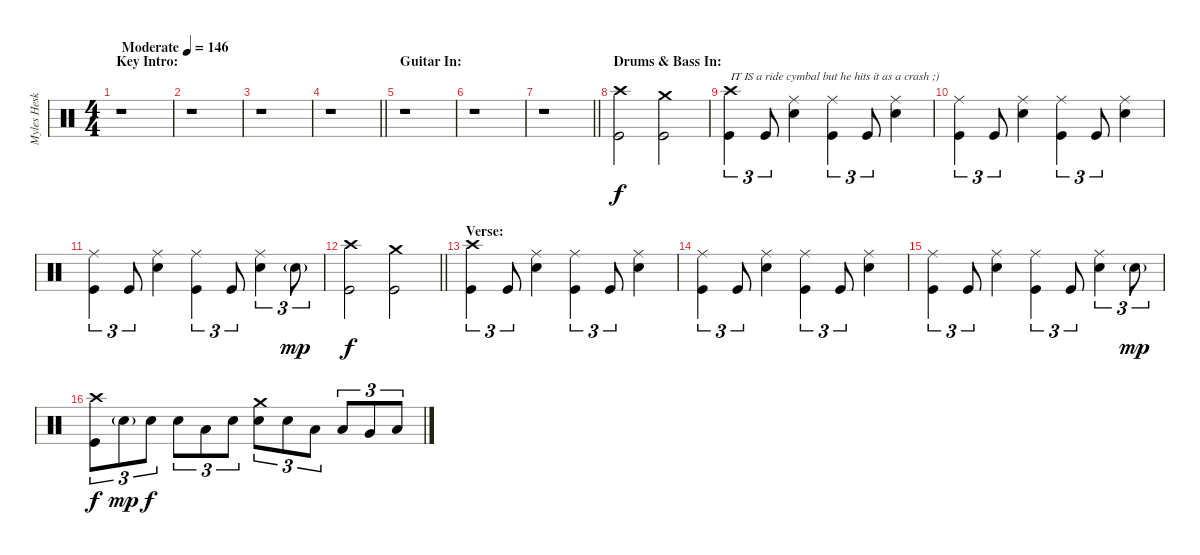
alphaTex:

\track ("Myles Heskett" "Myles Hesk") {instrument percussion}
\staff {score}
\articulation defaults
\ts (4 4)
\section ("" "Key Intro:")
\tempo (146 "Moderate")
\clef neutral
\ks c
r.1{dy f} |
r.1 |
r.1 |
\barLineRight lightlight
r.1 |
\section ("" "Guitar In:")
r.1 |
r.1 |
\barLineRight lightlight
r.1 |
\section ("" "Drums & Bass In:")
("Crash high (hit)" "Kick (hit)").2 ("Crash medium (hit)" "Kick (hit)").2 |
("Crash high (hit)" "Kick (hit)").4{tu (3 2) txt "IT IS a ride cymbal but he hits it as a crash ;)"} "Kick (hit)".8{tu (3 2)} ("Ride (middle)" "Electric Snare (hit)").4 ("Ride (middle)" "Kick (hit)").4{tu (3 2)} "Kick (hit)".8{tu (3 2)} ("Ride (middle)" "Electric Snare (hit)").4 |
("Ride (middle)" "Kick (hit)").4{tu (3 2)} "Kick (hit)".8{tu (3 2)} ("Ride (middle)" "Electric Snare (hit)").4 ("Ride (middle)" "Kick (hit)").4{tu (3 2)} "Kick (hit)".8{tu (3 2)} ("Ride (middle)" "Electric Snare (hit)").4 |
("Ride (middle)" "Kick (hit)").4{tu (3 2)} "Kick (hit)".8{tu (3 2)} ("Ride (middle)" "Electric Snare (hit)").4 ("Ride (middle)" "Kick (hit)").4{tu (3 2)} "Kick (hit)".8{tu (3 2)} ("Ride (middle)" "Electric Snare (hit)").4{tu (3 2)} "Electric Snare (hit)"{g}.8{tu (3 2) dy mp} |
\barLineRight lightlight
("Crash high (hit)" "Kick (hit)").2{dy f} ("Crash medium (hit)" "Kick (hit)").2 |
\section ("" "Verse:")
("Crash high (hit)" "Kick (hit)").4{tu (3 2)} "Kick (hit)".8{tu (3 2)} ("Ride (middle)" "Electric Snare (hit)").4 ("Ride (middle)" "Kick (hit)").4{tu (3 2)} "Kick (hit)".8{tu (3 2)} ("Ride (middle)" "Electric Snare (hit)").4 |
("Ride (middle)" "Kick (hit)").4{tu (3 2)} "Kick (hit)".8{tu (3 2)} ("Ride (middle)" "Electric Snare (hit)").4 ("Ride (middle)" "Kick (hit)").4{tu (3 2)} "Kick (hit)".8{tu (3 2)} ("Ride (middle)" "Electric Snare (hit)").4 |
("Ride (middle)" "Kick (hit)").4{tu (3 2)} "Kick (hit)".8{tu (3 2)} ("Ride (middle)" "Electric Snare (hit)").4 ("Ride (middle)" "Kick (hit)").4{tu (3 2)} "Kick (hit)".8{tu (3 2)} ("Ride (middle)" "Electric Snare (hit)").4{tu (3 2)} "Electric Snare (hit)"{g}.8{tu (3 2) dy mp} |
("Crash high (hit)" "Kick (hit)").8{tu (3 2) dy f} "Electric Snare (hit)"{g}.8{tu (3 2) dy mp} "Electric Snare (hit)".8{tu (3 2) dy f} "Electric Snare (hit)".8{tu (3 2)} "Low Tom (hit)".8{tu (3 2)} "Electric Snare (hit)".8{tu (3 2)} ("Crash medium (hit)" "Electric Snare (hit)").8{tu (3 2)} "Electric Snare (hit)".8{tu (3 2)} "Low Tom (hit)".8{tu (3 2)} "Low Tom (hit)".8{tu (3 2)} "Very Low Tom (hit)".8{tu (3 2)} "Low Floor Tom (hit)".8{tu (3 2)}
